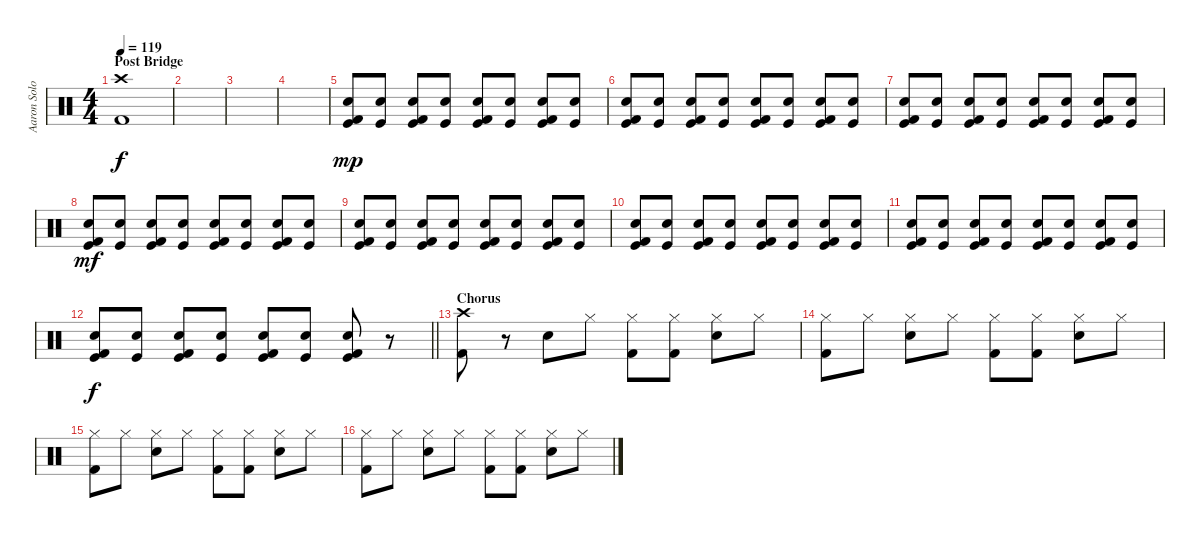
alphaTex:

\track ("Aaron Solowoniuk (Drums)" "Aaron Solo") {instrument percussion}
\staff {score}
\articulation defaults
\ts (4 4)
\section ("" "Post Bridge")
\tempo 119
\clef neutral
\ks c
("Crash high (hit)" "Kick (hit) 2").1{dy f} |
|
|
|
("Kick (hit)" "Electric Snare (hit)" "Kick (hit) 2").8{dy mp volume 8} ("Kick (hit)" "Electric Snare (hit)").8 ("Kick (hit)" "Electric Snare (hit)" "Kick (hit) 2").8 ("Kick (hit)" "Electric Snare (hit)").8 ("Kick (hit)" "Electric Snare (hit)" "Kick (hit) 2").8 ("Kick (hit)" "Electric Snare (hit)").8 ("Kick (hit)" "Electric Snare (hit)" "Kick (hit) 2").8 ("Kick (hit)" "Electric Snare (hit)").8 |
("Kick (hit)" "Electric Snare (hit)" "Kick (hit) 2").8 ("Kick (hit)" "Electric Snare (hit)").8 ("Kick (hit)" "Electric Snare (hit)" "Kick (hit) 2").8 ("Kick (hit)" "Electric Snare (hit)").8 ("Kick (hit)" "Electric Snare (hit)" "Kick (hit) 2").8 ("Kick (hit)" "Electric Snare (hit)").8 ("Kick (hit)" "Electric Snare (hit)" "Kick (hit) 2").8 ("Kick (hit)" "Electric Snare (hit)").8 |
("Kick (hit)" "Electric Snare (hit)" "Kick (hit) 2").8{volume 9} ("Kick (hit)" "Electric Snare (hit)").8 ("Kick (hit)" "Electric Snare (hit)" "Kick (hit) 2").8 ("Kick (hit)" "Electric Snare (hit)").8 ("Kick (hit)" "Electric Snare (hit)" "Kick (hit) 2").8 ("Kick (hit)" "Electric Snare (hit)").8 ("Kick (hit)" "Electric Snare (hit)" "Kick (hit) 2").8 ("Kick (hit)" "Electric Snare (hit)").8 |
("Kick (hit)" "Electric Snare (hit)" "Kick (hit) 2").8{dy mf} ("Kick (hit)" "Electric Snare (hit)").8 ("Kick (hit)" "Electric Snare (hit)" "Kick (hit) 2").8 ("Kick (hit)" "Electric Snare (hit)").8 ("Kick (hit)" "Electric Snare (hit)" "Kick (hit) 2").8 ("Kick (hit)" "Electric Snare (hit)").8 ("Kick (hit)" "Electric Snare (hit)" "Kick (hit) 2").8 ("Kick (hit)" "Electric Snare (hit)").8 |
("Kick (hit)" "Electric Snare (hit)" "Kick (hit) 2").8{volume 10} ("Kick (hit)" "Electric Snare (hit)").8 ("Kick (hit)" "Electric Snare (hit)" "Kick (hit) 2").8 ("Kick (hit)" "Electric Snare (hit)").8 ("Kick (hit)" "Electric Snare (hit)" "Kick (hit) 2").8 ("Kick (hit)" "Electric Snare (hit)").8 ("Kick (hit)" "Electric Snare (hit)" "Kick (hit) 2").8 ("Kick (hit)" "Electric Snare (hit)").8 |
("Kick (hit)" "Electric Snare (hit)" "Kick (hit) 2").8 ("Kick (hit)" "Electric Snare (hit)").8 ("Kick (hit)" "Electric Snare (hit)" "Kick (hit) 2").8 ("Kick (hit)" "Electric Snare (hit)").8 ("Kick (hit)" "Electric Snare (hit)" "Kick (hit) 2").8 ("Kick (hit)" "Electric Snare (hit)").8 ("Kick (hit)" "Electric Snare (hit)" "Kick (hit) 2").8 ("Kick (hit)" "Electric Snare (hit)").8 |
("Kick (hit)" "Electric Snare (hit)" "Kick (hit) 2").8{volume 11} ("Kick (hit)" "Electric Snare (hit)").8 ("Kick (hit)" "Electric Snare (hit)" "Kick (hit) 2").8 ("Kick (hit)" "Electric Snare (hit)").8 ("Kick (hit)" "Electric Snare (hit)" "Kick (hit) 2").8 ("Kick (hit)" "Electric Snare (hit)").8 ("Kick (hit)" "Electric Snare (hit)" "Kick (hit) 2").8 ("Kick (hit)" "Electric Snare (hit)").8 |
\barLineRight lightlight
("Kick (hit)" "Electric Snare (hit)" "Kick (hit) 2").8{dy f} ("Kick (hit)" "Electric Snare (hit)").8 ("Kick (hit)" "Electric Snare (hit)" "Kick (hit) 2").8 ("Kick (hit)" "Electric Snare (hit)").8 ("Kick (hit)" "Electric Snare (hit)" "Kick (hit) 2").8 ("Kick (hit)" "Electric Snare (hit)").8 ("Kick (hit)" "Electric Snare (hit)" "Kick (hit) 2").8{volume 12} r.8 |
\section ("" "Chorus")
("Crash high (hit)" "Kick (hit) 2").8 r.8 "Electric Snare (hit)".8 "Hi-Hat (closed)".8 ("Hi-Hat (closed)" "Kick (hit) 2").8 ("Hi-Hat (closed)" "Kick (hit) 2").8 ("Hi-Hat (closed)" "Electric Snare (hit)").8 "Hi-Hat (closed)".8 |
("Hi-Hat (closed)" "Kick (hit) 2").8 "Hi-Hat (closed)".8 ("Hi-Hat (closed)" "Electric Snare (hit)").8 "Hi-Hat (closed)".8 ("Hi-Hat (closed)" "Kick (hit) 2").8 ("Hi-Hat (closed)" "Kick (hit) 2").8 ("Hi-Hat (closed)" "Electric Snare (hit)").8 "Hi-Hat (closed)".8 |
("Hi-Hat (closed)" "Kick (hit) 2").8 "Hi-Hat (closed)".8 ("Hi-Hat (closed)" "Electric Snare (hit)").8 "Hi-Hat (closed)".8 ("Hi-Hat (closed)" "Kick (hit) 2").8 ("Hi-Hat (closed)" "Kick (hit) 2").8 ("Hi-Hat (closed)" "Electric Snare (hit)").8 "Hi-Hat (closed)".8 |
("Hi-Hat (closed)" "Kick (hit) 2").8 "Hi-Hat (closed)".8 ("Hi-Hat (closed)" "Electric Snare (hit)").8 "Hi-Hat (closed)".8 ("Hi-Hat (closed)" "Kick (hit) 2").8 ("Hi-Hat (closed)" "Kick (hit) 2").8 ("Hi-Hat (closed)" "Electric Snare (hit)").8 "Hi-Hat (closed)".8
